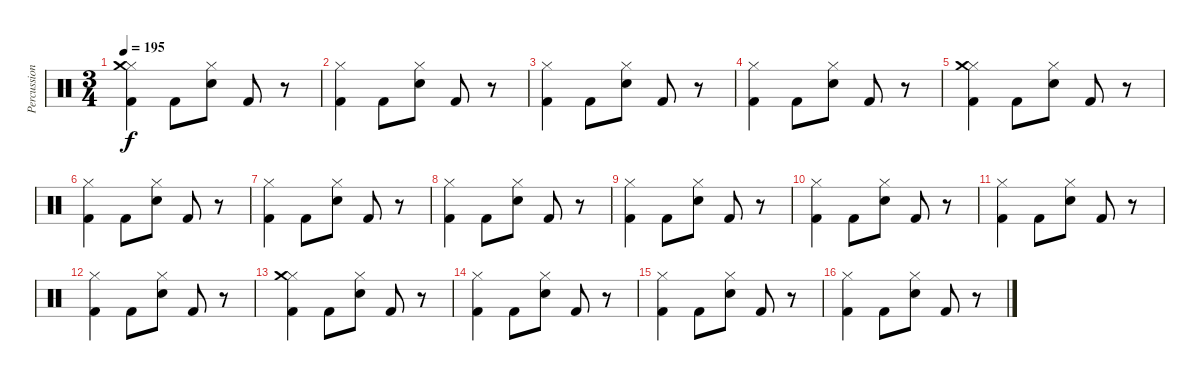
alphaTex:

\track ("Percussion" "Percussion") {instrument percussion}
\staff {score}
\articulation defaults
\ts (3 4)
\tempo 195
\clef neutral
\ks c
("Hi-Hat (closed)" "Crash medium (hit)" "Kick (hit) 2").4{dy f} "Kick (hit) 2".8 ("Hi-Hat (closed)" "Snare (hit) 2").8 "Kick (hit) 2".8 r.8 |
("Hi-Hat (closed)" "Kick (hit) 2").4 "Kick (hit) 2".8 ("Hi-Hat (closed)" "Snare (hit) 2").8 "Kick (hit) 2".8 r.8 |
("Hi-Hat (closed)" "Kick (hit) 2").4 "Kick (hit) 2".8 ("Hi-Hat (closed)" "Snare (hit) 2").8 "Kick (hit) 2".8 r.8 |
("Hi-Hat (closed)" "Kick (hit) 2").4 "Kick (hit) 2".8 ("Hi-Hat (closed)" "Snare (hit) 2").8 "Kick (hit) 2".8 r.8 |
("Hi-Hat (closed)" "Crash medium (hit)" "Kick (hit) 2").4 "Kick (hit) 2".8 ("Hi-Hat (closed)" "Snare (hit) 2").8 "Kick (hit) 2".8 r.8 |
("Hi-Hat (closed)" "Kick (hit) 2").4 "Kick (hit) 2".8 ("Hi-Hat (closed)" "Snare (hit) 2").8 "Kick (hit) 2".8 r.8 |
("Hi-Hat (closed)" "Kick (hit) 2").4 "Kick (hit) 2".8 ("Hi-Hat (closed)" "Snare (hit) 2").8 "Kick (hit) 2".8 r.8 |
("Hi-Hat (closed)" "Kick (hit) 2").4 "Kick (hit) 2".8 ("Hi-Hat (closed)" "Snare (hit) 2").8 "Kick (hit) 2".8 r.8 |
("Hi-Hat (closed)" "Kick (hit) 2").4 "Kick (hit) 2".8 ("Hi-Hat (closed)" "Snare (hit) 2").8 "Kick (hit) 2".8 r.8 |
("Hi-Hat (closed)" "Kick (hit) 2").4 "Kick (hit) 2".8 ("Hi-Hat (closed)" "Snare (hit) 2").8 "Kick (hit) 2".8 r.8 |
("Hi-Hat (closed)" "Kick (hit) 2").4 "Kick (hit) 2".8 ("Hi-Hat (closed)" "Snare (hit) 2").8 "Kick (hit) 2".8 r.8 |
("Hi-Hat (closed)" "Kick (hit) 2").4 "Kick (hit) 2".8 ("Hi-Hat (closed)" "Snare (hit) 2").8 "Kick (hit) 2".8 r.8 |
("Hi-Hat (closed)" "Crash medium (hit)" "Kick (hit) 2").4 "Kick (hit) 2".8 ("Hi-Hat (closed)" "Snare (hit) 2").8 "Kick (hit) 2".8 r.8 |
("Hi-Hat (closed)" "Kick (hit) 2").4 "Kick (hit) 2".8 ("Hi-Hat (closed)" "Snare (hit) 2").8 "Kick (hit) 2".8 r.8 |
("Hi-Hat (closed)" "Kick (hit) 2").4 "Kick (hit) 2".8 ("Hi-Hat (closed)" "Snare (hit) 2").8 "Kick (hit) 2".8 r.8 |
("Hi-Hat (closed)" "Kick (hit) 2").4 "Kick (hit) 2".8 ("Hi-Hat (closed)" "Snare (hit) 2").8 "Kick (hit) 2".8 r.8
